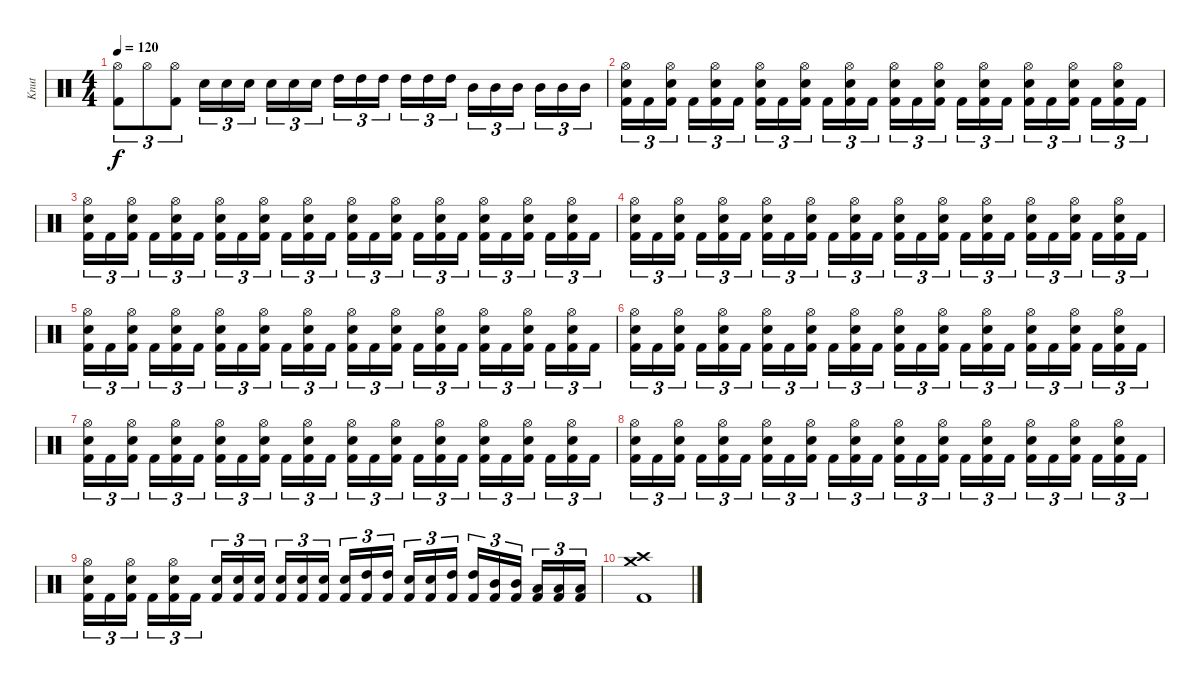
\track ("Knut" "Knut") {instrument percussion}
\staff {score}
\articulation defaults
\ts (4 4)
\tempo 120
\clef neutral
\ks c
("Hi-Hat (open)" "Kick (hit) 2").8{tu (3 2) dy f} "Hi-Hat (open)".8{tu (3 2)} ("Hi-Hat (open)" "Kick (hit) 2").8{tu (3 2)} "Electric Snare (hit)".16{tu (3 2)} "Electric Snare (hit)".16{tu (3 2)} "Electric Snare (hit)".16{tu (3 2)} "Electric Snare (hit)".16{tu (3 2)} "Electric Snare (hit)".16{tu (3 2)} "Electric Snare (hit)".16{tu (3 2)} "High Tom (hit)".16{tu (3 2)} "High Tom (hit)".16{tu (3 2)} "High Tom (hit)".16{tu (3 2)} "High Tom (hit)".16{tu (3 2)} "High Tom (hit)".16{tu (3 2)} "High Tom (hit)".16{tu (3 2)} "Mid Tom (hit)".16{tu (3 2)} "Mid Tom (hit)".16{tu (3 2)} "Mid Tom (hit)".16{tu (3 2)} "Mid Tom (hit)".16{tu (3 2)} "Mid Tom (hit)".16{tu (3 2)} "Mid Tom (hit)".16{tu (3 2)} |
("Electric Snare (hit)" "Hi-Hat (open)" "Kick (hit) 2").16{tu (3 2)} "Kick (hit) 2".16{tu (3 2)} ("Electric Snare (hit)" "Hi-Hat (open)" "Kick (hit) 2").16{tu (3 2)} "Kick (hit) 2".16{tu (3 2)} ("Electric Snare (hit)" "Hi-Hat (open)" "Kick (hit) 2").16{tu (3 2)} "Kick (hit) 2".16{tu (3 2)} ("Electric Snare (hit)" "Hi-Hat (open)" "Kick (hit) 2").16{tu (3 2)} "Kick (hit) 2".16{tu (3 2)} ("Electric Snare (hit)" "Hi-Hat (open)" "Kick (hit) 2").16{tu (3 2)} "Kick (hit) 2".16{tu (3 2)} ("Electric Snare (hit)" "Hi-Hat (open)" "Kick (hit) 2").16{tu (3 2)} "Kick (hit) 2".16{tu (3 2)} ("Electric Snare (hit)" "Hi-Hat (open)" "Kick (hit) 2").16{tu (3 2)} "Kick (hit) 2".16{tu (3 2)} ("Electric Snare (hit)" "Hi-Hat (open)" "Kick (hit) 2").16{tu (3 2)} "Kick (hit) 2".16{tu (3 2)} ("Electric Snare (hit)" "Hi-Hat (open)" "Kick (hit) 2").16{tu (3 2)} "Kick (hit) 2".16{tu (3 2)} ("Electric Snare (hit)" "Hi-Hat (open)" "Kick (hit) 2").16{tu (3 2)} "Kick (hit) 2".16{tu (3 2)} ("Electric Snare (hit)" "Hi-Hat (open)" "Kick (hit) 2").16{tu (3 2)} "Kick (hit) 2".16{tu (3 2)} ("Electric Snare (hit)" "Hi-Hat (open)" "Kick (hit) 2").16{tu (3 2)} "Kick (hit) 2".16{tu (3 2)} |
("Electric Snare (hit)" "Hi-Hat (open)" "Kick (hit) 2").16{tu (3 2)} "Kick (hit) 2".16{tu (3 2)} ("Electric Snare (hit)" "Hi-Hat (open)" "Kick (hit) 2").16{tu (3 2)} "Kick (hit) 2".16{tu (3 2)} ("Electric Snare (hit)" "Hi-Hat (open)" "Kick (hit) 2").16{tu (3 2)} "Kick (hit) 2".16{tu (3 2)} ("Electric Snare (hit)" "Hi-Hat (open)" "Kick (hit) 2").16{tu (3 2)} "Kick (hit) 2".16{tu (3 2)} ("Electric Snare (hit)" "Hi-Hat (open)" "Kick (hit) 2").16{tu (3 2)} "Kick (hit) 2".16{tu (3 2)} ("Electric Snare (hit)" "Hi-Hat (open)" "Kick (hit) 2").16{tu (3 2)} "Kick (hit) 2".16{tu (3 2)} ("Electric Snare (hit)" "Hi-Hat (open)" "Kick (hit) 2").16{tu (3 2)} "Kick (hit) 2".16{tu (3 2)} ("Electric Snare (hit)" "Hi-Hat (open)" "Kick (hit) 2").16{tu (3 2)} "Kick (hit) 2".16{tu (3 2)} ("Electric Snare (hit)" "Hi-Hat (open)" "Kick (hit) 2").16{tu (3 2)} "Kick (hit) 2".16{tu (3 2)} ("Electric Snare (hit)" "Hi-Hat (open)" "Kick (hit) 2").16{tu (3 2)} "Kick (hit) 2".16{tu (3 2)} ("Electric Snare (hit)" "Hi-Hat (open)" "Kick (hit) 2").16{tu (3 2)} "Kick (hit) 2".16{tu (3 2)} ("Electric Snare (hit)" "Hi-Hat (open)" "Kick (hit) 2").16{tu (3 2)} "Kick (hit) 2".16{tu (3 2)} |
("Electric Snare (hit)" "Hi-Hat (open)" "Kick (hit) 2").16{tu (3 2)} "Kick (hit) 2".16{tu (3 2)} ("Electric Snare (hit)" "Hi-Hat (open)" "Kick (hit) 2").16{tu (3 2)} "Kick (hit) 2".16{tu (3 2)} ("Electric Snare (hit)" "Hi-Hat (open)" "Kick (hit) 2").16{tu (3 2)} "Kick (hit) 2".16{tu (3 2)} ("Electric Snare (hit)" "Hi-Hat (open)" "Kick (hit) 2").16{tu (3 2)} "Kick (hit) 2".16{tu (3 2)} ("Electric Snare (hit)" "Hi-Hat (open)" "Kick (hit) 2").16{tu (3 2)} "Kick (hit) 2".16{tu (3 2)} ("Electric Snare (hit)" "Hi-Hat (open)" "Kick (hit) 2").16{tu (3 2)} "Kick (hit) 2".16{tu (3 2)} ("Electric Snare (hit)" "Hi-Hat (open)" "Kick (hit) 2").16{tu (3 2)} "Kick (hit) 2".16{tu (3 2)} ("Electric Snare (hit)" "Hi-Hat (open)" "Kick (hit) 2").16{tu (3 2)} "Kick (hit) 2".16{tu (3 2)} ("Electric Snare (hit)" "Hi-Hat (open)" "Kick (hit) 2").16{tu (3 2)} "Kick (hit) 2".16{tu (3 2)} ("Electric Snare (hit)" "Hi-Hat (open)" "Kick (hit) 2").16{tu (3 2)} "Kick (hit) 2".16{tu (3 2)} ("Electric Snare (hit)" "Hi-Hat (open)" "Kick (hit) 2").16{tu (3 2)} "Kick (hit) 2".16{tu (3 2)} ("Electric Snare (hit)" "Hi-Hat (open)" "Kick (hit) 2").16{tu (3 2)} "Kick (hit) 2".16{tu (3 2)} |
("Electric Snare (hit)" "Hi-Hat (open)" "Kick (hit) 2").16{tu (3 2)} "Kick (hit) 2".16{tu (3 2)} ("Electric Snare (hit)" "Hi-Hat (open)" "Kick (hit) 2").16{tu (3 2)} "Kick (hit) 2".16{tu (3 2)} ("Electric Snare (hit)" "Hi-Hat (open)" "Kick (hit) 2").16{tu (3 2)} "Kick (hit) 2".16{tu (3 2)} ("Electric Snare (hit)" "Hi-Hat (open)" "Kick (hit) 2").16{tu (3 2)} "Kick (hit) 2".16{tu (3 2)} ("Electric Snare (hit)" "Hi-Hat (open)" "Kick (hit) 2").16{tu (3 2)} "Kick (hit) 2".16{tu (3 2)} ("Electric Snare (hit)" "Hi-Hat (open)" "Kick (hit) 2").16{tu (3 2)} "Kick (hit) 2".16{tu (3 2)} ("Electric Snare (hit)" "Hi-Hat (open)" "Kick (hit) 2").16{tu (3 2)} "Kick (hit) 2".16{tu (3 2)} ("Electric Snare (hit)" "Hi-Hat (open)" "Kick (hit) 2").16{tu (3 2)} "Kick (hit) 2".16{tu (3 2)} ("Electric Snare (hit)" "Hi-Hat (open)" "Kick (hit) 2").16{tu (3 2)} "Kick (hit) 2".16{tu (3 2)} ("Electric Snare (hit)" "Hi-Hat (open)" "Kick (hit) 2").16{tu (3 2)} "Kick (hit) 2".16{tu (3 2)} ("Electric Snare (hit)" "Hi-Hat (open)" "Kick (hit) 2").16{tu (3 2)} "Kick (hit) 2".16{tu (3 2)} ("Electric Snare (hit)" "Hi-Hat (open)" "Kick (hit) 2").16{tu (3 2)} "Kick (hit) 2".16{tu (3 2)} |
("Electric Snare (hit)" "Hi-Hat (open)" "Kick (hit) 2").16{tu (3 2)} "Kick (hit) 2".16{tu (3 2)} ("Electric Snare (hit)" "Hi-Hat (open)" "Kick (hit) 2").16{tu (3 2)} "Kick (hit) 2".16{tu (3 2)} ("Electric Snare (hit)" "Hi-Hat (open)" "Kick (hit) 2").16{tu (3 2)} "Kick (hit) 2".16{tu (3 2)} ("Electric Snare (hit)" "Hi-Hat (open)" "Kick (hit) 2").16{tu (3 2)} "Kick (hit) 2".16{tu (3 2)} ("Electric Snare (hit)" "Hi-Hat (open)" "Kick (hit) 2").16{tu (3 2)} "Kick (hit) 2".16{tu (3 2)} ("Electric Snare (hit)" "Hi-Hat (open)" "Kick (hit) 2").16{tu (3 2)} "Kick (hit) 2".16{tu (3 2)} ("Electric Snare (hit)" "Hi-Hat (open)" "Kick (hit) 2").16{tu (3 2)} "Kick (hit) 2".16{tu (3 2)} ("Electric Snare (hit)" "Hi-Hat (open)" "Kick (hit) 2").16{tu (3 2)} "Kick (hit) 2".16{tu (3 2)} ("Electric Snare (hit)" "Hi-Hat (open)" "Kick (hit) 2").16{tu (3 2)} "Kick (hit) 2".16{tu (3 2)} ("Electric Snare (hit)" "Hi-Hat (open)" "Kick (hit) 2").16{tu (3 2)} "Kick (hit) 2".16{tu (3 2)} ("Electric Snare (hit)" "Hi-Hat (open)" "Kick (hit) 2").16{tu (3 2)} "Kick (hit) 2".16{tu (3 2)} ("Electric Snare (hit)" "Hi-Hat (open)" "Kick (hit) 2").16{tu (3 2)} "Kick (hit) 2".16{tu (3 2)} |
("Electric Snare (hit)" "Hi-Hat (open)" "Kick (hit) 2").16{tu (3 2)} "Kick (hit) 2".16{tu (3 2)} ("Electric Snare (hit)" "Hi-Hat (open)" "Kick (hit) 2").16{tu (3 2)} "Kick (hit) 2".16{tu (3 2)} ("Electric Snare (hit)" "Hi-Hat (open)" "Kick (hit) 2").16{tu (3 2)} "Kick (hit) 2".16{tu (3 2)} ("Electric Snare (hit)" "Hi-Hat (open)" "Kick (hit) 2").16{tu (3 2)} "Kick (hit) 2".16{tu (3 2)} ("Electric Snare (hit)" "Hi-Hat (open)" "Kick (hit) 2").16{tu (3 2)} "Kick (hit) 2".16{tu (3 2)} ("Electric Snare (hit)" "Hi-Hat (open)" "Kick (hit) 2").16{tu (3 2)} "Kick (hit) 2".16{tu (3 2)} ("Electric Snare (hit)" "Hi-Hat (open)" "Kick (hit) 2").16{tu (3 2)} "Kick (hit) 2".16{tu (3 2)} ("Electric Snare (hit)" "Hi-Hat (open)" "Kick (hit) 2").16{tu (3 2)} "Kick (hit) 2".16{tu (3 2)} ("Electric Snare (hit)" "Hi-Hat (open)" "Kick (hit) 2").16{tu (3 2)} "Kick (hit) 2".16{tu (3 2)} ("Electric Snare (hit)" "Hi-Hat (open)" "Kick (hit) 2").16{tu (3 2)} "Kick (hit) 2".16{tu (3 2)} ("Electric Snare (hit)" "Hi-Hat (open)" "Kick (hit) 2").16{tu (3 2)} "Kick (hit) 2".16{tu (3 2)} ("Electric Snare (hit)" "Hi-Hat (open)" "Kick (hit) 2").16{tu (3 2)} "Kick (hit) 2".16{tu (3 2)} |
("Electric Snare (hit)" "Hi-Hat (open)" "Kick (hit) 2").16{tu (3 2)} "Kick (hit) 2".16{tu (3 2)} ("Electric Snare (hit)" "Hi-Hat (open)" "Kick (hit) 2").16{tu (3 2)} "Kick (hit) 2".16{tu (3 2)} ("Electric Snare (hit)" "Hi-Hat (open)" "Kick (hit) 2").16{tu (3 2)} "Kick (hit) 2".16{tu (3 2)} ("Electric Snare (hit)" "Hi-Hat (open)" "Kick (hit) 2").16{tu (3 2)} "Kick (hit) 2".16{tu (3 2)} ("Electric Snare (hit)" "Hi-Hat (open)" "Kick (hit) 2").16{tu (3 2)} "Kick (hit) 2".16{tu (3 2)} ("Electric Snare (hit)" "Hi-Hat (open)" "Kick (hit) 2").16{tu (3 2)} "Kick (hit) 2".16{tu (3 2)} ("Electric Snare (hit)" "Hi-Hat (open)" "Kick (hit) 2").16{tu (3 2)} "Kick (hit) 2".16{tu (3 2)} ("Electric Snare (hit)" "Hi-Hat (open)" "Kick (hit) 2").16{tu (3 2)} "Kick (hit) 2".16{tu (3 2)} ("Electric Snare (hit)" "Hi-Hat (open)" "Kick (hit) 2").16{tu (3 2)} "Kick (hit) 2".16{tu (3 2)} ("Electric Snare (hit)" "Hi-Hat (open)" "Kick (hit) 2").16{tu (3 2)} "Kick (hit) 2".16{tu (3 2)} ("Electric Snare (hit)" "Hi-Hat (open)" "Kick (hit) 2").16{tu (3 2)} "Kick (hit) 2".16{tu (3 2)} ("Electric Snare (hit)" "Hi-Hat (open)" "Kick (hit) 2").16{tu (3 2)} "Kick (hit) 2".16{tu (3 2)} |
("Electric Snare (hit)" "Hi-Hat (open)" "Kick (hit) 2").16{tu (3 2)} "Kick (hit) 2".16{tu (3 2)} ("Electric Snare (hit)" "Hi-Hat (open)" "Kick (hit) 2").16{tu (3 2)} "Kick (hit) 2".16{tu (3 2)} ("Electric Snare (hit)" "Hi-Hat (open)" "Kick (hit) 2").16{tu (3 2)} "Kick (hit) 2".16{tu (3 2)} ("Electric Snare (hit)" "Kick (hit) 2").16{tu (3 2)} ("Electric Snare (hit)" "Kick (hit) 2").16{tu (3 2)} ("Electric Snare (hit)" "Kick (hit) 2").16{tu (3 2)} ("Electric Snare (hit)" "Kick (hit) 2").16{tu (3 2)} ("Electric Snare (hit)" "Kick (hit) 2").16{tu (3 2)} ("Electric Snare (hit)" "Kick (hit) 2").16{tu (3 2)} ("Electric Snare (hit)" "Kick (hit) 2").16{tu (3 2)} ("High Tom (hit)" "Kick (hit) 2").16{tu (3 2)} ("High Tom (hit)" "Kick (hit) 2").16{tu (3 2)} ("Electric Snare (hit)" "Kick (hit) 2").16{tu (3 2)} ("Electric Snare (hit)" "Kick (hit) 2").16{tu (3 2)} ("High Tom (hit)" "Kick (hit) 2").16{tu (3 2)} ("High Tom (hit)" "Kick (hit) 2").16{tu (3 2)} ("Mid Tom (hit)" "Kick (hit) 2").16{tu (3 2)} ("Mid Tom (hit)" "Kick (hit) 2").16{tu (3 2)} ("Low Tom (hit)" "Kick (hit) 2").16{tu (3 2)} ("Low Tom (hit)" "Kick (hit) 2").16{tu (3 2)} ("Low Tom (hit)" "Kick (hit) 2").16{tu (3 2)} |
("Crash high (hit)" "Crash medium (hit)" "Kick (hit) 2").1
